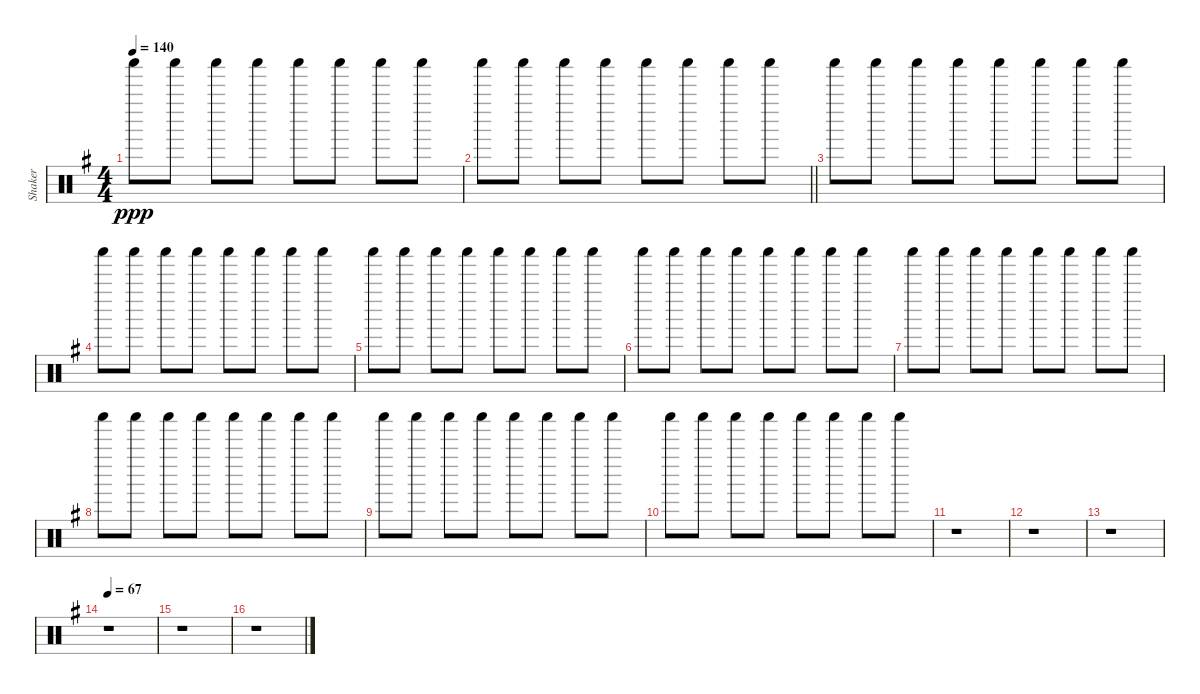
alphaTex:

\track ("Shaker" "Shaker") {instrument percussion}
\staff {score}
\articulation defaults
\ts (4 4)
\tempo 140
\clef neutral
\ks g "Shaker (hit)".8{dy ppp} "Shaker (hit)".8 "Shaker (hit)".8 "Shaker (hit)".8 "Shaker (hit)".8 "Shaker (hit)".8 "Shaker (hit)".8 "Shaker (hit)".8
|
\barLineRight lightlight "Shaker (hit)".8 "Shaker (hit)".8 "Shaker (hit)".8 "Shaker (hit)".8 "Shaker (hit)".8 "Shaker (hit)".8 "Shaker (hit)".8 "Shaker (hit)".8
|
"Shaker (hit)".8 "Shaker (hit)".8 "Shaker (hit)".8 "Shaker (hit)".8 "Shaker (hit)".8 "Shaker (hit)".8 "Shaker (hit)".8 "Shaker (hit)".8 |
"Shaker (hit)".8 "Shaker (hit)".8 "Shaker (hit)".8 "Shaker (hit)".8 "Shaker (hit)".8 "Shaker (hit)".8 "Shaker (hit)".8 "Shaker (hit)".8 |
"Shaker (hit)".8 "Shaker (hit)".8 "Shaker (hit)".8 "Shaker (hit)".8 "Shaker (hit)".8 "Shaker (hit)".8 "Shaker (hit)".8 "Shaker (hit)".8 |
"Shaker (hit)".8 "Shaker (hit)".8 "Shaker (hit)".8 "Shaker (hit)".8 "Shaker (hit)".8 "Shaker (hit)".8 "Shaker (hit)".8 "Shaker (hit)".8 |
"Shaker (hit)".8 "Shaker (hit)".8 "Shaker (hit)".8 "Shaker (hit)".8 "Shaker (hit)".8 "Shaker (hit)".8 "Shaker (hit)".8 "Shaker (hit)".8 |
"Shaker (hit)".8 "Shaker (hit)".8 "Shaker (hit)".8 "Shaker (hit)".8 "Shaker (hit)".8 "Shaker (hit)".8 "Shaker (hit)".8 "Shaker (hit)".8 |
"Shaker (hit)".8 "Shaker (hit)".8 "Shaker (hit)".8 "Shaker (hit)".8 "Shaker (hit)".8 "Shaker (hit)".8 "Shaker (hit)".8 "Shaker (hit)".8 |
"Shaker (hit)".8 "Shaker (hit)".8 "Shaker (hit)".8 "Shaker (hit)".8 "Shaker (hit)".8 "Shaker (hit)".8 "Shaker (hit)".8 "Shaker (hit)".8 |
r.1 |
r.1 |
r.1 |
\tempo 67
r.1 |
r.1 |
r.1
